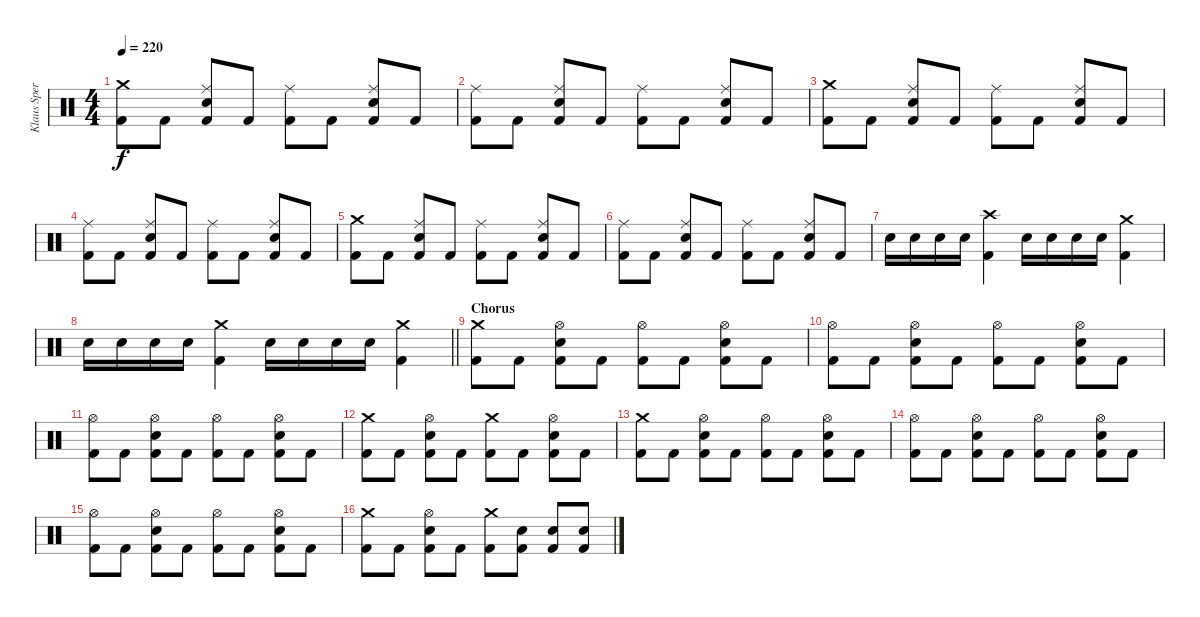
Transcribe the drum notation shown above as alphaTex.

\track ("Klaus Sperling" "Klaus Sper") {instrument percussion}
\staff {score}
\articulation defaults
\ts (4 4)
\tempo 220
\clef neutral
\ks c
("Crash medium (hit)" "Kick (hit) 2").8{dy f} "Kick (hit) 2".8 ("Ride (middle)" "Electric Snare (hit)" "Kick (hit) 2").8 "Kick (hit) 2".8 ("Ride (middle)" "Kick (hit) 2").8 "Kick (hit) 2".8 ("Ride (middle)" "Electric Snare (hit)" "Kick (hit) 2").8 "Kick (hit) 2".8 |
("Ride (middle)" "Kick (hit) 2").8 "Kick (hit) 2".8 ("Ride (middle)" "Electric Snare (hit)" "Kick (hit) 2").8 "Kick (hit) 2".8 ("Ride (middle)" "Kick (hit) 2").8 "Kick (hit) 2".8 ("Ride (middle)" "Electric Snare (hit)" "Kick (hit) 2").8 "Kick (hit) 2".8 |
("Crash medium (hit)" "Kick (hit) 2").8 "Kick (hit) 2".8 ("Ride (middle)" "Electric Snare (hit)" "Kick (hit) 2").8 "Kick (hit) 2".8 ("Ride (middle)" "Kick (hit) 2").8 "Kick (hit) 2".8 ("Ride (middle)" "Electric Snare (hit)" "Kick (hit) 2").8 "Kick (hit) 2".8 |
("Ride (middle)" "Kick (hit) 2").8 "Kick (hit) 2".8 ("Ride (middle)" "Electric Snare (hit)" "Kick (hit) 2").8 "Kick (hit) 2".8 ("Ride (middle)" "Kick (hit) 2").8 "Kick (hit) 2".8 ("Ride (middle)" "Electric Snare (hit)" "Kick (hit) 2").8 "Kick (hit) 2".8 |
("Crash medium (hit)" "Kick (hit) 2").8 "Kick (hit) 2".8 ("Ride (middle)" "Electric Snare (hit)" "Kick (hit) 2").8 "Kick (hit) 2".8 ("Ride (middle)" "Kick (hit) 2").8 "Kick (hit) 2".8 ("Ride (middle)" "Electric Snare (hit)" "Kick (hit) 2").8 "Kick (hit) 2".8 |
("Ride (middle)" "Kick (hit) 2").8 "Kick (hit) 2".8 ("Ride (middle)" "Electric Snare (hit)" "Kick (hit) 2").8 "Kick (hit) 2".8 ("Ride (middle)" "Kick (hit) 2").8 "Kick (hit) 2".8 ("Ride (middle)" "Electric Snare (hit)" "Kick (hit) 2").8 "Kick (hit) 2".8 |
"Electric Snare (hit)".16 "Electric Snare (hit)".16 "Electric Snare (hit)".16 "Electric Snare (hit)".16 ("Crash high (hit)" "Kick (hit) 2").4 "Electric Snare (hit)".16 "Electric Snare (hit)".16 "Electric Snare (hit)".16 "Electric Snare (hit)".16 ("Crash medium (hit)" "Kick (hit) 2").4 |
\barLineRight lightlight "Electric Snare (hit)".16 "Electric Snare (hit)".16 "Electric Snare (hit)".16 "Electric Snare (hit)".16
("Crash medium (hit)" "Kick (hit) 2").4 "Electric Snare (hit)".16 "Electric Snare (hit)".16 "Electric Snare (hit)".16 "Electric Snare (hit)".16 ("Crash medium (hit)" "Kick (hit) 2").4 |
\section ("" "Chorus")
("Crash medium (hit)" "Kick (hit) 2").8 "Kick (hit) 2".8 ("Hi-Hat (open)" "Electric Snare (hit)" "Kick (hit) 2").8 "Kick (hit) 2".8 ("Hi-Hat (open)" "Kick (hit) 2").8 "Kick (hit) 2".8 ("Hi-Hat (open)" "Electric Snare (hit)" "Kick (hit) 2").8 "Kick (hit) 2".8 |
("Hi-Hat (open)" "Kick (hit) 2").8 "Kick (hit) 2".8 ("Hi-Hat (open)" "Electric Snare (hit)" "Kick (hit) 2").8 "Kick (hit) 2".8 ("Hi-Hat (open)" "Kick (hit) 2").8 "Kick (hit) 2".8 ("Hi-Hat (open)" "Electric Snare (hit)" "Kick (hit) 2").8 "Kick (hit) 2".8 |
("Hi-Hat (open)" "Kick (hit) 2").8 "Kick (hit) 2".8 ("Hi-Hat (open)" "Electric Snare (hit)" "Kick (hit) 2").8 "Kick (hit) 2".8 ("Hi-Hat (open)" "Kick (hit) 2").8 "Kick (hit) 2".8 ("Hi-Hat (open)" "Electric Snare (hit)" "Kick (hit) 2").8 "Kick (hit) 2".8 |
("Crash medium (hit)" "Kick (hit) 2").8 "Kick (hit) 2".8 ("Hi-Hat (open)" "Electric Snare (hit)" "Kick (hit) 2").8 "Kick (hit) 2".8 ("Crash medium (hit)" "Kick (hit) 2").8 "Kick (hit) 2".8 ("Hi-Hat (open)" "Electric Snare (hit)" "Kick (hit) 2").8 "Kick (hit) 2".8 |
("Crash medium (hit)" "Kick (hit) 2").8 "Kick (hit) 2".8 ("Hi-Hat (open)" "Electric Snare (hit)" "Kick (hit) 2").8 "Kick (hit) 2".8 ("Hi-Hat (open)" "Kick (hit) 2").8 "Kick (hit) 2".8 ("Hi-Hat (open)" "Electric Snare (hit)" "Kick (hit) 2").8 "Kick (hit) 2".8 |
("Hi-Hat (open)" "Kick (hit) 2").8 "Kick (hit) 2".8 ("Hi-Hat (open)" "Electric Snare (hit)" "Kick (hit) 2").8 "Kick (hit) 2".8 ("Hi-Hat (open)" "Kick (hit) 2").8 "Kick (hit) 2".8 ("Hi-Hat (open)" "Electric Snare (hit)" "Kick (hit) 2").8 "Kick (hit) 2".8 |
("Hi-Hat (open)" "Kick (hit) 2").8 "Kick (hit) 2".8 ("Hi-Hat (open)" "Electric Snare (hit)" "Kick (hit) 2").8 "Kick (hit) 2".8 ("Hi-Hat (open)" "Kick (hit) 2").8 "Kick (hit) 2".8 ("Hi-Hat (open)" "Electric Snare (hit)" "Kick (hit) 2").8 "Kick (hit) 2".8 |
("Crash medium (hit)" "Kick (hit) 2").8 "Kick (hit) 2".8 ("Hi-Hat (open)" "Electric Snare (hit)" "Kick (hit) 2").8 "Kick (hit) 2".8 ("Crash medium (hit)" "Kick (hit) 2").8 ("Electric Snare (hit)" "Kick (hit) 2").8 ("Electric Snare (hit)" "Kick (hit) 2").8 ("Electric Snare (hit)" "Kick (hit) 2").8
